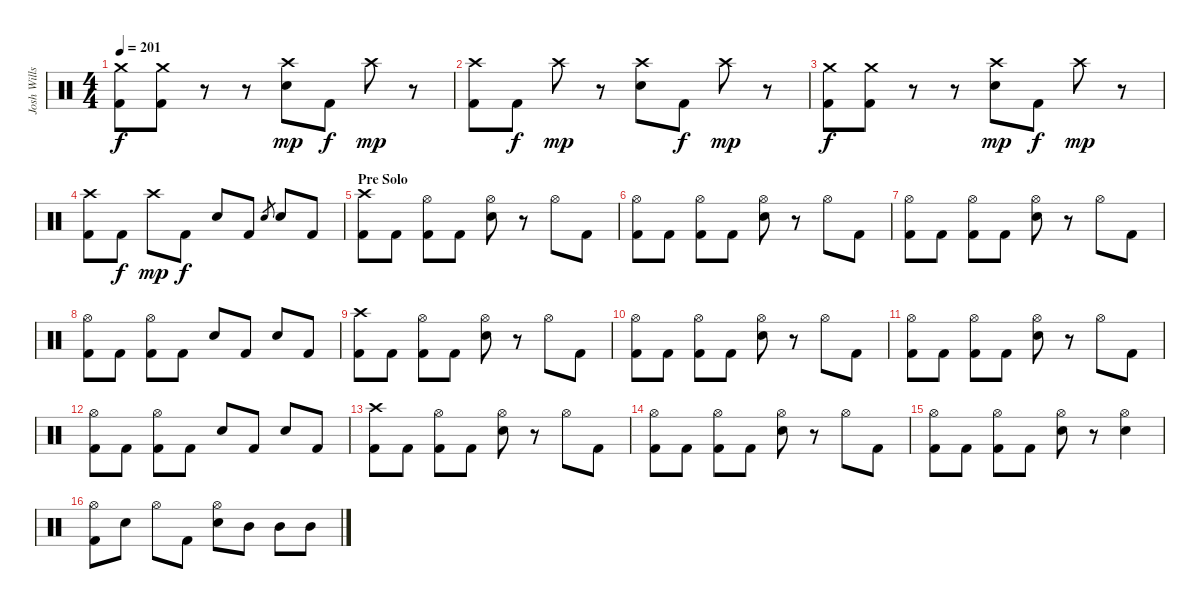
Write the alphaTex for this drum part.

\track ("Josh Wills" "Josh Wills") {instrument percussion}
\staff {score}
\articulation defaults
\ts (4 4)
\tempo 201
\clef neutral
\ks c
("Crash medium (hit)" "Kick (hit) 2").8{dy f} ("Crash medium (hit)" "Kick (hit) 2").8 r.8 r.8 ("Crash high (hit)" "Snare (hit) 2").8{dy mp} "Kick (hit) 2".8{dy f} "Crash high (hit)".8{dy mp} r.8 |
("Crash high (hit)" "Kick (hit) 2").8 "Kick (hit) 2".8{dy f} "Crash high (hit)".8{dy mp} r.8 ("Crash high (hit)" "Snare (hit) 2").8 "Kick (hit) 2".8{dy f} "Crash high (hit)".8{dy mp} r.8 |
("Crash medium (hit)" "Kick (hit) 2").8{dy f} ("Crash medium (hit)" "Kick (hit) 2").8 r.8 r.8 ("Crash high (hit)" "Snare (hit) 2").8{dy mp} "Kick (hit) 2".8{dy f} "Crash high (hit)".8{dy mp} r.8 |
("Crash high (hit)" "Kick (hit) 2").8 "Kick (hit) 2".8{dy f} "Crash high (hit)".8{dy mp} "Kick (hit) 2".8{dy f} "Snare (hit) 2".8 "Kick (hit) 2".8 "Snare (hit) 2".8{gr} "Snare (hit) 2".8 "Kick (hit) 2".8 |
\section ("" "Pre Solo")
("Crash high (hit)" "Kick (hit) 2").8 "Kick (hit) 2".8 ("Hi-Hat (open)" "Kick (hit) 2").8 "Kick (hit) 2".8 ("Hi-Hat (open)" "Snare (hit) 2").8 r.8 "Hi-Hat (open)".8 "Kick (hit) 2".8 |
("Hi-Hat (open)" "Kick (hit) 2").8 "Kick (hit) 2".8 ("Hi-Hat (open)" "Kick (hit) 2").8 "Kick (hit) 2".8 ("Hi-Hat (open)" "Snare (hit) 2").8 r.8 "Hi-Hat (open)".8 "Kick (hit) 2".8 |
("Hi-Hat (open)" "Kick (hit) 2").8 "Kick (hit) 2".8 ("Hi-Hat (open)" "Kick (hit) 2").8 "Kick (hit) 2".8 ("Hi-Hat (open)" "Snare (hit) 2").8 r.8 "Hi-Hat (open)".8 "Kick (hit) 2".8 |
("Hi-Hat (open)" "Kick (hit) 2").8 "Kick (hit) 2".8 ("Hi-Hat (open)" "Kick (hit) 2").8 "Kick (hit) 2".8 "Snare (hit) 2".8 "Kick (hit) 2".8 "Snare (hit) 2".8 "Kick (hit) 2".8 |
("Crash high (hit)" "Kick (hit) 2").8 "Kick (hit) 2".8 ("Hi-Hat (open)" "Kick (hit) 2").8 "Kick (hit) 2".8 ("Hi-Hat (open)" "Snare (hit) 2").8 r.8 "Hi-Hat (open)".8 "Kick (hit) 2".8 |
("Hi-Hat (open)" "Kick (hit) 2").8 "Kick (hit) 2".8 ("Hi-Hat (open)" "Kick (hit) 2").8 "Kick (hit) 2".8 ("Hi-Hat (open)" "Snare (hit) 2").8 r.8 "Hi-Hat (open)".8 "Kick (hit) 2".8 |
("Hi-Hat (open)" "Kick (hit) 2").8 "Kick (hit) 2".8 ("Hi-Hat (open)" "Kick (hit) 2").8 "Kick (hit) 2".8 ("Hi-Hat (open)" "Snare (hit) 2").8 r.8 "Hi-Hat (open)".8 "Kick (hit) 2".8 |
("Hi-Hat (open)" "Kick (hit) 2").8 "Kick (hit) 2".8 ("Hi-Hat (open)" "Kick (hit) 2").8 "Kick (hit) 2".8 "Snare (hit) 2".8 "Kick (hit) 2".8 "Snare (hit) 2".8 "Kick (hit) 2".8 |
("Crash high (hit)" "Kick (hit) 2").8 "Kick (hit) 2".8 ("Hi-Hat (open)" "Kick (hit) 2").8 "Kick (hit) 2".8 ("Hi-Hat (open)" "Snare (hit) 2").8 r.8 "Hi-Hat (open)".8 "Kick (hit) 2".8 |
("Hi-Hat (open)" "Kick (hit) 2").8 "Kick (hit) 2".8 ("Hi-Hat (open)" "Kick (hit) 2").8 "Kick (hit) 2".8 ("Hi-Hat (open)" "Snare (hit) 2").8 r.8 "Hi-Hat (open)".8 "Kick (hit) 2".8 |
("Hi-Hat (open)" "Kick (hit) 2").8 "Kick (hit) 2".8 ("Hi-Hat (open)" "Kick (hit) 2").8 "Kick (hit) 2".8 ("Hi-Hat (open)" "Snare (hit) 2").8 r.8 ("Hi-Hat (open)" "Snare (hit) 2").4 |
("Hi-Hat (open)" "Kick (hit) 2").8 "Snare (hit) 2".8 "Hi-Hat (open)".8 "Kick (hit) 2".8 ("Hi-Hat (open)" "Snare (hit) 2").8 "Mid Tom (hit)".8 "Mid Tom (hit)".8 "Mid Tom (hit)".8
